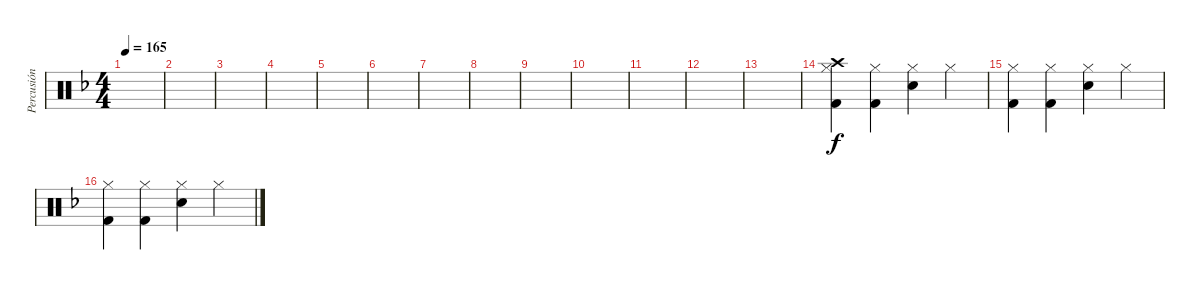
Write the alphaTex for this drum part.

\track ("Percusión" "Percusión") {instrument percussion}
\staff {score}
\articulation defaults
\ts (4 4)
\tempo 165
\clef neutral
\ks f
|
|
|
|
|
|
|
|
|
|
|
|
|
("Crash high (hit)" "Hi-Hat (closed)" "Kick (hit) 2").4 ("Hi-Hat (closed)" "Kick (hit) 2").4 ("Hi-Hat (closed)" "Electric Snare (hit)").4 "Hi-Hat (closed)".4 |
("Hi-Hat (closed)" "Kick (hit) 2").4 ("Hi-Hat (closed)" "Kick (hit) 2").4 ("Hi-Hat (closed)" "Electric Snare (hit)").4 "Hi-Hat (closed)".4 |
("Hi-Hat (closed)" "Kick (hit) 2").4 ("Hi-Hat (closed)" "Kick (hit) 2").4 ("Hi-Hat (closed)" "Electric Snare (hit)").4 "Hi-Hat (closed)".4
